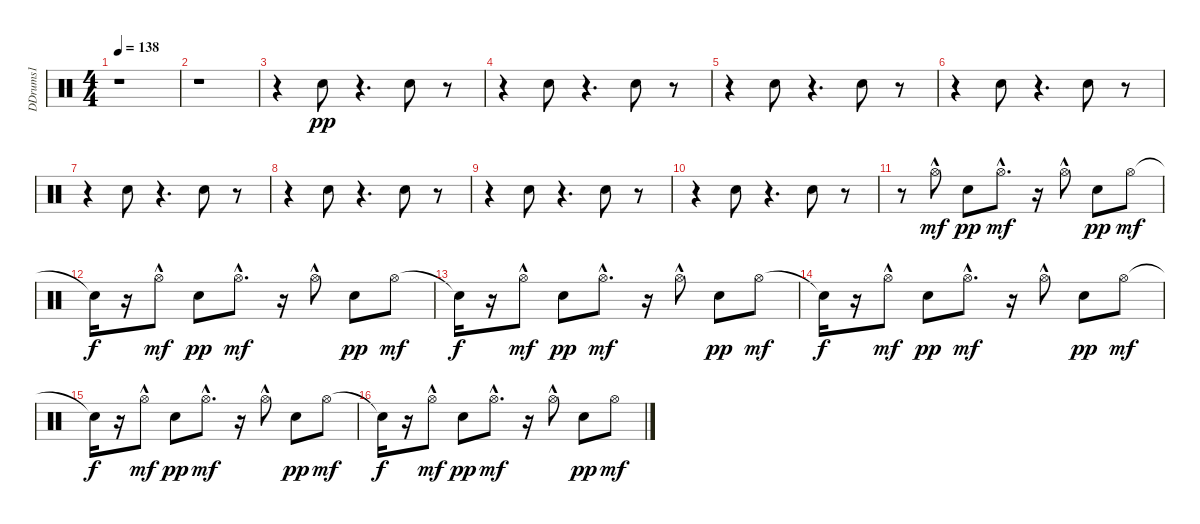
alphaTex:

\track ("DDrums1" "DDrums1") {instrument percussion}
\staff {score}
\articulation defaults
\ts (4 4)
\tempo 138
\clef neutral
\ks c
r.1{dy f} |
r.1 |
r.4 "Electric Snare (hit)".8{dy pp} r.4{d} "Electric Snare (hit)".8 r.8 |
r.4 "Electric Snare (hit)".8 r.4{d} "Electric Snare (hit)".8 r.8 |
r.4 "Electric Snare (hit)".8 r.4{d} "Electric Snare (hit)".8 r.8 |
r.4 "Electric Snare (hit)".8 r.4{d} "Electric Snare (hit)".8 r.8 |
r.4 "Electric Snare (hit)".8 r.4{d} "Electric Snare (hit)".8 r.8 |
r.4 "Electric Snare (hit)".8 r.4{d} "Electric Snare (hit)".8 r.8 |
r.4 "Electric Snare (hit)".8 r.4{d} "Electric Snare (hit)".8 r.8 |
r.4 "Electric Snare (hit)".8 r.4{d} "Electric Snare (hit)".8 r.8 |
r.8 "Hi-Hat (open)"{hac}.8{dy mf} "Electric Snare (hit)".8{dy pp} "Hi-Hat (open)"{hac}.8{d dy mf} r.16 "Hi-Hat (open)"{hac}.8 "Electric Snare (hit)".8{dy pp} "Hi-Hat (open)".8{dy mf} |
"Snare (hit)"{t}.16{dy f} r.16 "Hi-Hat (open)"{hac}.8{dy mf} "Electric Snare (hit)".8{dy pp} "Hi-Hat (open)"{hac}.8{d dy mf} r.16 "Hi-Hat (open)"{hac}.8 "Electric Snare (hit)".8{dy pp} "Hi-Hat (open)".8{dy mf} |
"Snare (hit)"{t}.16{dy f} r.16 "Hi-Hat (open)"{hac}.8{dy mf} "Electric Snare (hit)".8{dy pp} "Hi-Hat (open)"{hac}.8{d dy mf} r.16 "Hi-Hat (open)"{hac}.8 "Electric Snare (hit)".8{dy pp} "Hi-Hat (open)".8{dy mf} |
"Snare (hit)"{t}.16{dy f} r.16 "Hi-Hat (open)"{hac}.8{dy mf} "Electric Snare (hit)".8{dy pp} "Hi-Hat (open)"{hac}.8{d dy mf} r.16 "Hi-Hat (open)"{hac}.8 "Electric Snare (hit)".8{dy pp} "Hi-Hat (open)".8{dy mf} |
"Snare (hit)"{t}.16{dy f} r.16 "Hi-Hat (open)"{hac}.8{dy mf} "Electric Snare (hit)".8{dy pp} "Hi-Hat (open)"{hac}.8{d dy mf} r.16 "Hi-Hat (open)"{hac}.8 "Electric Snare (hit)".8{dy pp} "Hi-Hat (open)".8{dy mf} |
"Snare (hit)"{t}.16{dy f} r.16 "Hi-Hat (open)"{hac}.8{dy mf} "Electric Snare (hit)".8{dy pp} "Hi-Hat (open)"{hac}.8{d dy mf} r.16 "Hi-Hat (open)"{hac}.8 "Electric Snare (hit)".8{dy pp} "Hi-Hat (open)".8{dy mf}
